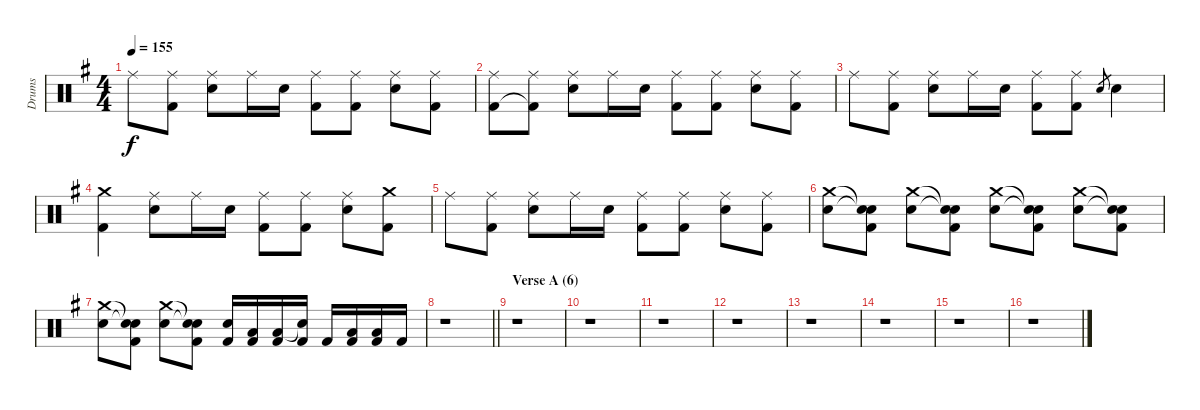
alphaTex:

\track ("Drums" "Drums") {instrument percussion}
\staff {score}
\articulation defaults
\ts (4 4)
\tempo 155
\clef neutral
\ks eminor "Ride (middle)".8{dy f}
("Ride (middle)" "Kick (hit) 2").8 ("Ride (middle)" "Electric Snare (hit)").8 "Ride (middle)".16 "Electric Snare (hit)".16 ("Ride (middle)" "Kick (hit) 2").8 ("Ride (middle)" "Kick (hit) 2").8 ("Ride (middle)" "Electric Snare (hit)").8 ("Ride (middle)" "Kick (hit) 2").8 |
("Ride (middle)" "Kick (hit) 2").8 ("Ride (middle)" "Kick (hit) 2"{t}).8 ("Ride (middle)" "Electric Snare (hit)").8 "Ride (middle)".16 "Electric Snare (hit)".16 ("Ride (middle)" "Kick (hit) 2").8 ("Ride (middle)" "Kick (hit) 2").8 ("Ride (middle)" "Electric Snare (hit)").8 ("Ride (middle)" "Kick (hit) 2").8 |
"Ride (middle)".8 ("Ride (middle)" "Kick (hit) 2").8 ("Ride (middle)" "Electric Snare (hit)").8 "Ride (middle)".16 "Electric Snare (hit)".16 ("Ride (middle)" "Kick (hit) 2").8 ("Ride (middle)" "Kick (hit) 2").8 "Electric Snare (hit)".8{gr} "Electric Snare (hit)".4 |
("Crash medium (hit)" "Kick (hit) 2").4 ("Ride (middle)" "Electric Snare (hit)").8 "Ride (middle)".16 "Electric Snare (hit)".16 ("Ride (middle)" "Kick (hit) 2").8 ("Ride (middle)" "Kick (hit) 2").8 ("Ride (middle)" "Electric Snare (hit)").8 ("Crash medium (hit)" "Kick (hit) 2").8 |
"Ride (middle)".8 ("Ride (middle)" "Kick (hit) 2").8 ("Ride (middle)" "Electric Snare (hit)").8 "Ride (middle)".16 "Electric Snare (hit)".16 ("Ride (middle)" "Kick (hit) 2").8 ("Ride (middle)" "Kick (hit) 2").8 ("Ride (middle)" "Electric Snare (hit)").8 ("Ride (middle)" "Kick (hit) 2").8 |
("Crash medium (hit)" "Electric Snare (hit)").8 ("Snare (hit)"{t} "Snare (hit)"{t} "Kick (hit) 2").8 ("Crash medium (hit)" "Electric Snare (hit)").8 ("Snare (hit)"{t} "Snare (hit)"{t} "Kick (hit) 2").8 ("Crash medium (hit)" "Electric Snare (hit)").8 ("Snare (hit)"{t} "Snare (hit)"{t} "Kick (hit) 2").8 ("Crash medium (hit)" "Electric Snare (hit)").8 ("Snare (hit)"{t} "Snare (hit)"{t} "Kick (hit) 2").8 |
("Crash medium (hit)" "Electric Snare (hit)").8 ("Snare (hit)"{t} "Snare (hit)"{t} "Kick (hit) 2").8 ("Crash medium (hit)" "Electric Snare (hit)").8 ("Snare (hit)"{t} "Snare (hit)"{t} "Kick (hit) 2").8 ("Electric Snare (hit)" "Kick (hit) 2").16 ("Low Floor Tom (hit)" "Kick (hit) 2").16 ("Low Floor Tom (hit)" "Kick (hit) 2").16 ("Snare (hit)"{t} "Kick (hit) 2").16 "Kick (hit) 2".16 ("Low Floor Tom (hit)" "Kick (hit) 2").16 ("Low Floor Tom (hit)" "Kick (hit) 2").16 "Kick (hit) 2".16 |
\barLineRight lightlight
r.1 |
\section ("" "Verse A (6)")
r.1 |
r.1 |
r.1 |
r.1 |
r.1 |
r.1 |
r.1 |
r.1
